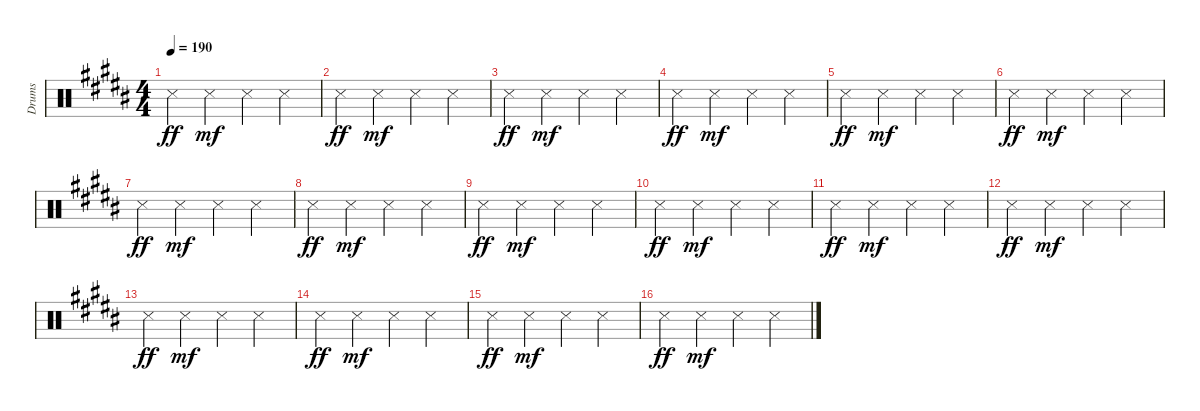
\bracketExtendMode groupsimilarinstruments
\otherSystemsTrackNameOrientation horizontal
\track ("Drumkit" "Drums") {mute instrument percussion}
\staff {score}
\articulation defaults
\ts (4 4)
\tempo 190
\clef neutral
\scale
0.333333
\ks b "Snare (side stick) 3"{acc forcenatural}.4{dy ff} "Snare (side stick) 3"{acc forcenatural}.4{dy mf} "Snare (side stick) 3"{acc forcenatural}.4 "Snare (side stick) 3"{acc forcenatural}.4
|
\scale
0.333333 "Snare (side stick) 3"{acc forcenatural}.4{dy ff} "Snare (side stick) 3"{acc forcenatural}.4{dy mf} "Snare (side stick) 3"{acc forcenatural}.4 "Snare (side stick) 3"{acc forcenatural}.4 |
\scale
0.333333 "Snare (side stick) 3"{acc forcenatural}.4{dy ff} "Snare (side stick) 3"{acc forcenatural}.4{dy mf} "Snare (side stick) 3"{acc forcenatural}.4 "Snare (side stick) 3"{acc forcenatural}.4 |
\scale
0.333333 "Snare (side stick) 3"{acc forcenatural}.4{dy ff} "Snare (side stick) 3"{acc forcenatural}.4{dy mf} "Snare (side stick) 3"{acc forcenatural}.4 "Snare (side stick) 3"{acc forcenatural}.4 |
\scale
0.333333 "Snare (side stick) 3"{acc forcenatural}.4{dy ff} "Snare (side stick) 3"{acc forcenatural}.4{dy mf} "Snare (side stick) 3"{acc forcenatural}.4 "Snare (side stick) 3"{acc forcenatural}.4 |
\scale
0.333333 "Snare (side stick) 3"{acc forcenatural}.4{dy ff} "Snare (side stick) 3"{acc forcenatural}.4{dy mf} "Snare (side stick) 3"{acc forcenatural}.4 "Snare (side stick) 3"{acc forcenatural}.4 |
\scale
0.333333 "Snare (side stick) 3"{acc forcenatural}.4{dy ff} "Snare (side stick) 3"{acc forcenatural}.4{dy mf} "Snare (side stick) 3"{acc forcenatural}.4 "Snare (side stick) 3"{acc forcenatural}.4 |
\scale
0.333333 "Snare (side stick) 3"{acc forcenatural}.4{dy ff} "Snare (side stick) 3"{acc forcenatural}.4{dy mf} "Snare (side stick) 3"{acc forcenatural}.4 "Snare (side stick) 3"{acc forcenatural}.4 |
\scale
0.333333 "Snare (side stick) 3"{acc forcenatural}.4{dy ff} "Snare (side stick) 3"{acc forcenatural}.4{dy mf} "Snare (side stick) 3"{acc forcenatural}.4 "Snare (side stick) 3"{acc forcenatural}.4 |
\scale
0.333333 "Snare (side stick) 3"{acc forcenatural}.4{dy ff} "Snare (side stick) 3"{acc forcenatural}.4{dy mf} "Snare (side stick) 3"{acc forcenatural}.4 "Snare (side stick) 3"{acc forcenatural}.4 |
\scale
0.333333 "Snare (side stick) 3"{acc forcenatural}.4{dy ff} "Snare (side stick) 3"{acc forcenatural}.4{dy mf} "Snare (side stick) 3"{acc forcenatural}.4 "Snare (side stick) 3"{acc forcenatural}.4 |
\scale
0.333333 "Snare (side stick) 3"{acc forcenatural}.4{dy ff} "Snare (side stick) 3"{acc forcenatural}.4{dy mf} "Snare (side stick) 3"{acc forcenatural}.4 "Snare (side stick) 3"{acc forcenatural}.4 |
\scale
0.333333 "Snare (side stick) 3"{acc forcenatural}.4{dy ff} "Snare (side stick) 3"{acc forcenatural}.4{dy mf} "Snare (side stick) 3"{acc forcenatural}.4 "Snare (side stick) 3"{acc forcenatural}.4 |
\scale
0.333333 "Snare (side stick) 3"{acc forcenatural}.4{dy ff} "Snare (side stick) 3"{acc forcenatural}.4{dy mf} "Snare (side stick) 3"{acc forcenatural}.4 "Snare (side stick) 3"{acc forcenatural}.4 |
"Snare (side stick) 3"{acc forcenatural}.4{dy ff} "Snare (side stick) 3"{acc forcenatural}.4{dy mf} "Snare (side stick) 3"{acc forcenatural}.4 "Snare (side stick) 3"{acc forcenatural}.4 |
"Snare (side stick) 3"{acc forcenatural}.4{dy ff} "Snare (side stick) 3"{acc forcenatural}.4{dy mf} "Snare (side stick) 3"{acc forcenatural}.4 "Snare (side stick) 3"{acc forcenatural}.4
